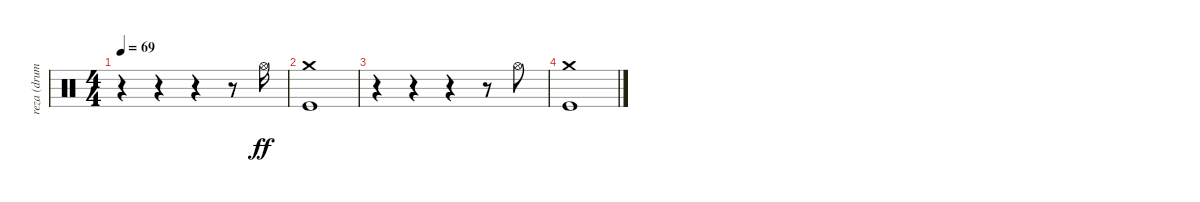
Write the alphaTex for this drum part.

\track ("reza (drum)" "reza (drum") {instrument percussion}
\staff {score}
\articulation defaults
\ts (4 4)
\tempo 69
\clef neutral
\ks c
r.4{dy ff} r.4 r.4 r.8 "Hi-Hat (open)".16 |
("Crash medium (hit)" "Kick (hit)").1 |
r.4 r.4 r.4 r.8 "Hi-Hat (open)".8 |
("Crash medium (hit)" "Kick (hit)").1
